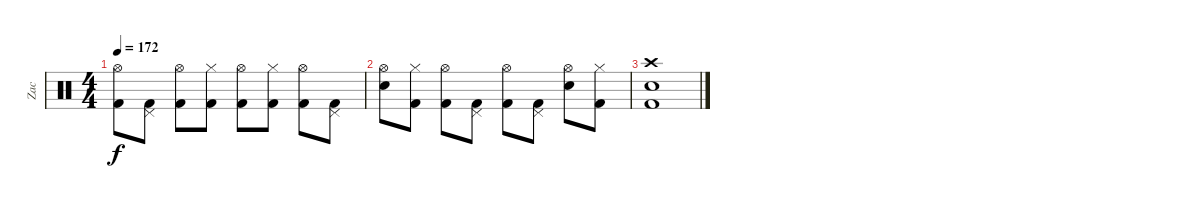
\track ("Zac" "Zac") {instrument percussion}
\staff {score}
\articulation defaults
\ts (4 4)
\tempo 172
\clef neutral
\ks c
("Kick (hit) 2" "Hi-Hat (open)").8{dy f} ("Pedal Hi-Hat (hit)" "Kick (hit) 2").8 ("Kick (hit) 2" "Hi-Hat (open)").8 ("Hi-Hat (closed)" "Kick (hit) 2").8 ("Kick (hit) 2" "Hi-Hat (open)").8 ("Hi-Hat (closed)" "Kick (hit) 2").8 ("Kick (hit) 2" "Hi-Hat (open)").8 ("Pedal Hi-Hat (hit)" "Kick (hit) 2").8 |
("Electric Snare (hit)" "Hi-Hat (open)").8 ("Hi-Hat (closed)" "Kick (hit) 2").8 ("Kick (hit) 2" "Hi-Hat (open)").8 ("Pedal Hi-Hat (hit)" "Kick (hit) 2").8 ("Kick (hit) 2" "Hi-Hat (open)").8 ("Pedal Hi-Hat (hit)" "Kick (hit) 2").8 ("Electric Snare (hit)" "Hi-Hat (open)").8 ("Hi-Hat (closed)" "Kick (hit) 2").8 |
("Crash high (hit)" "Electric Snare (hit)" "Kick (hit) 2").1
